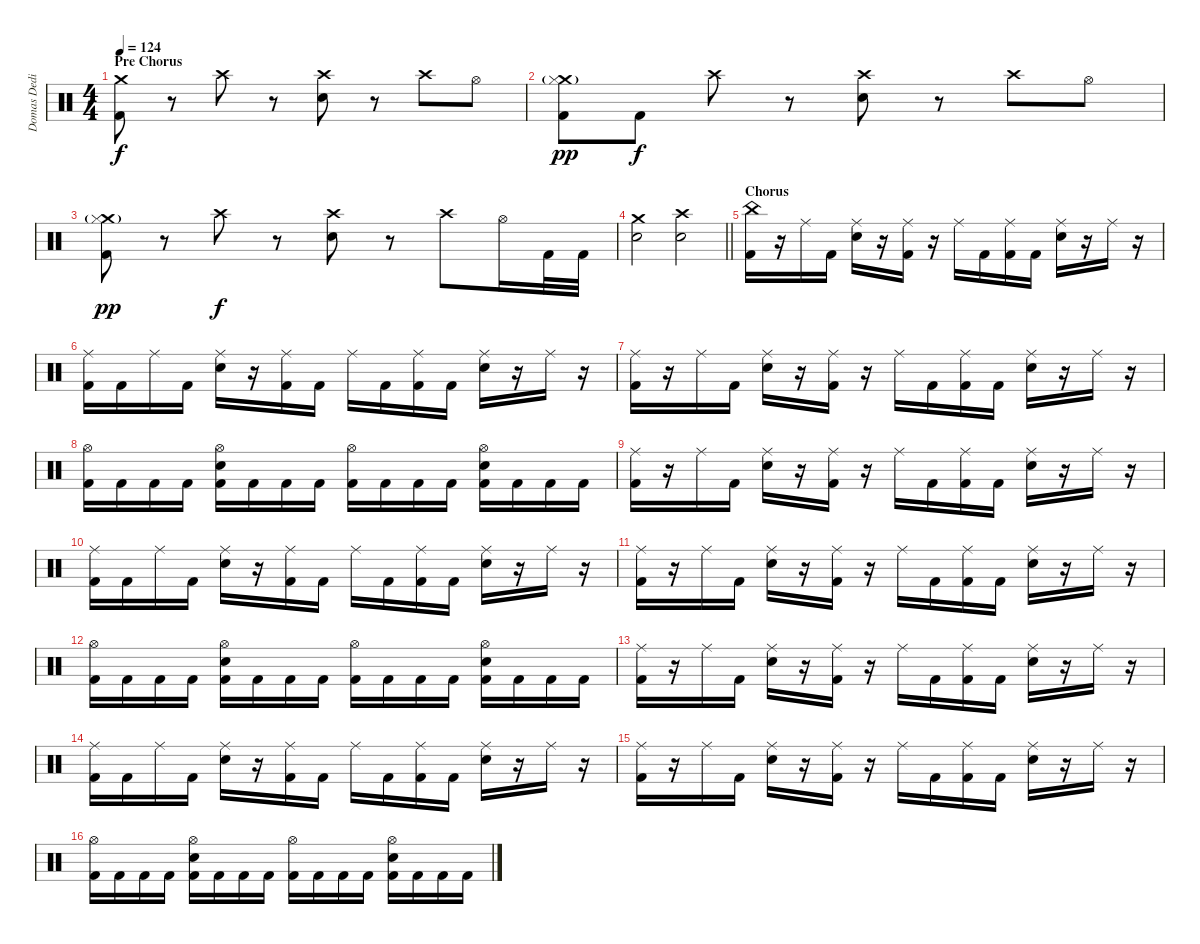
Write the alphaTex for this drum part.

\track ("Domas Dedinas" "Domas Dedi") {instrument percussion}
\staff {score}
\articulation defaults
\ts (4 4)
\section ("" "Pre Chorus")
\tempo 124
\clef neutral
\ks c
("Crash medium (hit)" "Kick (hit) 2").8{dy f} r.8 "Crash high (hit)".8 r.8 ("Crash high (hit)" "Snare (hit) 2").8 r.8 "Crash high (hit)".8 "Hi-Hat (open)".8 |
("Crash medium (hit)" "Hi-Hat (closed)"{g} "Kick (hit) 2").8{dy pp} "Kick (hit) 2".8{dy f} "Crash high (hit)".8 r.8 ("Crash high (hit)" "Snare (hit) 2").8 r.8 "Crash high (hit)".8 "Hi-Hat (open)".8 |
("Crash medium (hit)" "Hi-Hat (closed)"{g} "Kick (hit) 2").8{dy pp} r.8 "Crash high (hit)".8{dy f} r.8 ("Crash high (hit)" "Snare (hit) 2").8 r.8 "Crash high (hit)".8 "Hi-Hat (open)".16 "Kick (hit) 2".32 "Kick (hit) 2".32 |
\barLineRight lightlight
("Crash medium (hit)" "Snare (hit) 2").2 ("Crash high (hit)" "Snare (hit) 2").2 |
\section ("" "Chorus")
("China (hit)" "Kick (hit) 2").16 r.16 "Ride (middle)".16 "Kick (hit) 2".16 ("Ride (middle)" "Snare (hit) 2").16 r.16 ("Ride (middle)" "Kick (hit) 2").16 r.16 "Ride (middle)".16 "Kick (hit) 2".16 ("Ride (middle)" "Kick (hit) 2").16 "Kick (hit) 2".16 ("Ride (middle)" "Snare (hit) 2").16 r.16 "Ride (middle)".16 r.16 |
("Ride (middle)" "Kick (hit) 2").16 "Kick (hit) 2".16 "Ride (middle)".16 "Kick (hit) 2".16 ("Ride (middle)" "Snare (hit) 2").16 r.16 ("Ride (middle)" "Kick (hit) 2").16 "Kick (hit) 2".16 "Ride (middle)".16 "Kick (hit) 2".16 ("Ride (middle)" "Kick (hit) 2").16 "Kick (hit) 2".16 ("Ride (middle)" "Snare (hit) 2").16 r.16 "Ride (middle)".16 r.16 |
("Ride (middle)" "Kick (hit) 2").16 r.16 "Ride (middle)".16 "Kick (hit) 2".16 ("Ride (middle)" "Snare (hit) 2").16 r.16 ("Ride (middle)" "Kick (hit) 2").16 r.16 "Ride (middle)".16 "Kick (hit) 2".16 ("Ride (middle)" "Kick (hit) 2").16 "Kick (hit) 2".16 ("Ride (middle)" "Snare (hit) 2").16 r.16 "Ride (middle)".16 r.16 |
("Hi-Hat (open)" "Kick (hit) 2").16 "Kick (hit) 2".16 "Kick (hit) 2".16 "Kick (hit) 2".16 ("Hi-Hat (open)" "Snare (hit) 2" "Kick (hit) 2").16 "Kick (hit) 2".16 "Kick (hit) 2".16 "Kick (hit) 2".16 ("Hi-Hat (open)" "Kick (hit) 2").16 "Kick (hit) 2".16 "Kick (hit) 2".16 "Kick (hit) 2".16 ("Hi-Hat (open)" "Snare (hit) 2" "Kick (hit) 2").16 "Kick (hit) 2".16 "Kick (hit) 2".16 "Kick (hit) 2".16 |
("Ride (middle)" "Kick (hit) 2").16 r.16 "Ride (middle)".16 "Kick (hit) 2".16 ("Ride (middle)" "Snare (hit) 2").16 r.16 ("Ride (middle)" "Kick (hit) 2").16 r.16 "Ride (middle)".16 "Kick (hit) 2".16 ("Ride (middle)" "Kick (hit) 2").16 "Kick (hit) 2".16 ("Ride (middle)" "Snare (hit) 2").16 r.16 "Ride (middle)".16 r.16 |
("Ride (middle)" "Kick (hit) 2").16 "Kick (hit) 2".16 "Ride (middle)".16 "Kick (hit) 2".16 ("Ride (middle)" "Snare (hit) 2").16 r.16 ("Ride (middle)" "Kick (hit) 2").16 "Kick (hit) 2".16 "Ride (middle)".16 "Kick (hit) 2".16 ("Ride (middle)" "Kick (hit) 2").16 "Kick (hit) 2".16 ("Ride (middle)" "Snare (hit) 2").16 r.16 "Ride (middle)".16 r.16 |
("Ride (middle)" "Kick (hit) 2").16 r.16 "Ride (middle)".16 "Kick (hit) 2".16 ("Ride (middle)" "Snare (hit) 2").16 r.16 ("Ride (middle)" "Kick (hit) 2").16 r.16 "Ride (middle)".16 "Kick (hit) 2".16 ("Ride (middle)" "Kick (hit) 2").16 "Kick (hit) 2".16 ("Ride (middle)" "Snare (hit) 2").16 r.16 "Ride (middle)".16 r.16 |
("Hi-Hat (open)" "Kick (hit) 2").16 "Kick (hit) 2".16 "Kick (hit) 2".16 "Kick (hit) 2".16 ("Hi-Hat (open)" "Snare (hit) 2" "Kick (hit) 2").16 "Kick (hit) 2".16 "Kick (hit) 2".16 "Kick (hit) 2".16 ("Hi-Hat (open)" "Kick (hit) 2").16 "Kick (hit) 2".16 "Kick (hit) 2".16 "Kick (hit) 2".16 ("Hi-Hat (open)" "Snare (hit) 2" "Kick (hit) 2").16 "Kick (hit) 2".16 "Kick (hit) 2".16 "Kick (hit) 2".16 |
("Ride (middle)" "Kick (hit) 2").16 r.16 "Ride (middle)".16 "Kick (hit) 2".16 ("Ride (middle)" "Snare (hit) 2").16 r.16 ("Ride (middle)" "Kick (hit) 2").16 r.16 "Ride (middle)".16 "Kick (hit) 2".16 ("Ride (middle)" "Kick (hit) 2").16 "Kick (hit) 2".16 ("Ride (middle)" "Snare (hit) 2").16 r.16 "Ride (middle)".16 r.16 |
("Ride (middle)" "Kick (hit) 2").16 "Kick (hit) 2".16 "Ride (middle)".16 "Kick (hit) 2".16 ("Ride (middle)" "Snare (hit) 2").16 r.16 ("Ride (middle)" "Kick (hit) 2").16 "Kick (hit) 2".16 "Ride (middle)".16 "Kick (hit) 2".16 ("Ride (middle)" "Kick (hit) 2").16 "Kick (hit) 2".16 ("Ride (middle)" "Snare (hit) 2").16 r.16 "Ride (middle)".16 r.16 |
("Ride (middle)" "Kick (hit) 2").16 r.16 "Ride (middle)".16 "Kick (hit) 2".16 ("Ride (middle)" "Snare (hit) 2").16 r.16 ("Ride (middle)" "Kick (hit) 2").16 r.16 "Ride (middle)".16 "Kick (hit) 2".16 ("Ride (middle)" "Kick (hit) 2").16 "Kick (hit) 2".16 ("Ride (middle)" "Snare (hit) 2").16 r.16 "Ride (middle)".16 r.16 |
("Hi-Hat (open)" "Kick (hit) 2").16 "Kick (hit) 2".16 "Kick (hit) 2".16 "Kick (hit) 2".16 ("Hi-Hat (open)" "Snare (hit) 2" "Kick (hit) 2").16 "Kick (hit) 2".16 "Kick (hit) 2".16 "Kick (hit) 2".16 ("Hi-Hat (open)" "Kick (hit) 2").16 "Kick (hit) 2".16 "Kick (hit) 2".16 "Kick (hit) 2".16 ("Hi-Hat (open)" "Snare (hit) 2" "Kick (hit) 2").16 "Kick (hit) 2".16 "Kick (hit) 2".16 "Kick (hit) 2".16
